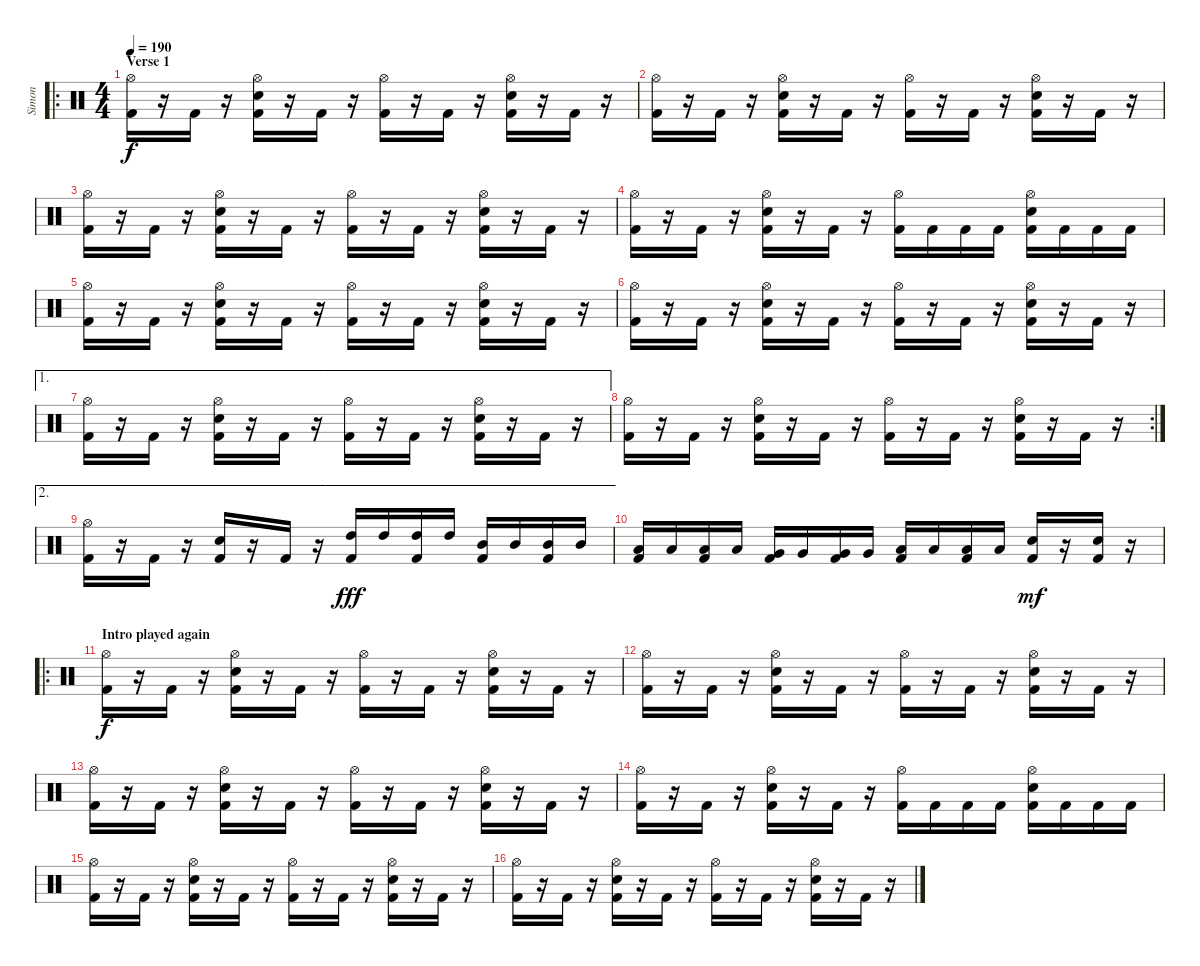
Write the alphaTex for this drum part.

\track ("Simon" "Simon") {instrument percussion}
\staff {score}
\articulation defaults
\ro
\ts (4 4)
\section ("" "Verse 1")
\tempo 190
\clef neutral
\ks c
("Hi-Hat (open)" "Kick (hit) 2").16{dy f} r.16 "Kick (hit) 2".16 r.16 ("Hi-Hat (open)" "Snare (hit) 2" "Kick (hit) 2").16 r.16 "Kick (hit) 2".16 r.16 ("Hi-Hat (open)" "Kick (hit) 2").16 r.16 "Kick (hit) 2".16 r.16 ("Hi-Hat (open)" "Snare (hit) 2" "Kick (hit) 2").16 r.16 "Kick (hit) 2".16 r.16 |
("Hi-Hat (open)" "Kick (hit) 2").16 r.16 "Kick (hit) 2".16 r.16 ("Hi-Hat (open)" "Snare (hit) 2" "Kick (hit) 2").16 r.16 "Kick (hit) 2".16 r.16 ("Hi-Hat (open)" "Kick (hit) 2").16 r.16 "Kick (hit) 2".16 r.16 ("Hi-Hat (open)" "Snare (hit) 2" "Kick (hit) 2").16 r.16 "Kick (hit) 2".16 r.16 |
("Hi-Hat (open)" "Kick (hit) 2").16 r.16 "Kick (hit) 2".16 r.16 ("Hi-Hat (open)" "Snare (hit) 2" "Kick (hit) 2").16 r.16 "Kick (hit) 2".16 r.16 ("Hi-Hat (open)" "Kick (hit) 2").16 r.16 "Kick (hit) 2".16 r.16 ("Hi-Hat (open)" "Snare (hit) 2" "Kick (hit) 2").16 r.16 "Kick (hit) 2".16 r.16 |
("Hi-Hat (open)" "Kick (hit) 2").16 r.16 "Kick (hit) 2".16 r.16 ("Hi-Hat (open)" "Snare (hit) 2" "Kick (hit) 2").16 r.16 "Kick (hit) 2".16 r.16 ("Hi-Hat (open)" "Kick (hit) 2").16 "Kick (hit) 2".16 "Kick (hit) 2".16 "Kick (hit) 2".16 ("Hi-Hat (open)" "Snare (hit) 2" "Kick (hit) 2").16 "Kick (hit) 2".16 "Kick (hit) 2".16 "Kick (hit) 2".16 |
("Hi-Hat (open)" "Kick (hit) 2").16 r.16 "Kick (hit) 2".16 r.16 ("Hi-Hat (open)" "Snare (hit) 2" "Kick (hit) 2").16 r.16 "Kick (hit) 2".16 r.16 ("Hi-Hat (open)" "Kick (hit) 2").16 r.16 "Kick (hit) 2".16 r.16 ("Hi-Hat (open)" "Snare (hit) 2" "Kick (hit) 2").16 r.16 "Kick (hit) 2".16 r.16 |
("Hi-Hat (open)" "Kick (hit) 2").16 r.16 "Kick (hit) 2".16 r.16 ("Hi-Hat (open)" "Snare (hit) 2" "Kick (hit) 2").16 r.16 "Kick (hit) 2".16 r.16 ("Hi-Hat (open)" "Kick (hit) 2").16 r.16 "Kick (hit) 2".16 r.16 ("Hi-Hat (open)" "Snare (hit) 2" "Kick (hit) 2").16 r.16 "Kick (hit) 2".16 r.16 |
\ae 1
("Hi-Hat (open)" "Kick (hit) 2").16 r.16 "Kick (hit) 2".16 r.16 ("Hi-Hat (open)" "Snare (hit) 2" "Kick (hit) 2").16 r.16 "Kick (hit) 2".16 r.16 ("Hi-Hat (open)" "Kick (hit) 2").16 r.16 "Kick (hit) 2".16 r.16 ("Hi-Hat (open)" "Snare (hit) 2" "Kick (hit) 2").16 r.16 "Kick (hit) 2".16 r.16 |
\rc 2
("Hi-Hat (open)" "Kick (hit) 2").16 r.16 "Kick (hit) 2".16 r.16 ("Hi-Hat (open)" "Snare (hit) 2" "Kick (hit) 2").16 r.16 "Kick (hit) 2".16 r.16 ("Hi-Hat (open)" "Kick (hit) 2").16 r.16 "Kick (hit) 2".16 r.16 ("Hi-Hat (open)" "Snare (hit) 2" "Kick (hit) 2").16 r.16 "Kick (hit) 2".16 r.16 |
\ae 2
("Hi-Hat (open)" "Kick (hit) 2").16 r.16 "Kick (hit) 2".16 r.16 ("Snare (hit) 2" "Kick (hit) 2").16 r.16 "Kick (hit) 2".16 r.16 ("High Tom (hit)" "Kick (hit) 2").16{dy fff} "High Tom (hit)".16 ("High Tom (hit)" "Kick (hit) 2").16 "High Tom (hit)".16 ("Mid Tom (hit)" "Kick (hit) 2").16 "Mid Tom (hit)".16 ("Mid Tom (hit)" "Kick (hit) 2").16 "Mid Tom (hit)".16 |
("Low Tom (hit)" "Kick (hit) 2").16 "Low Tom (hit)".16 ("Low Tom (hit)" "Kick (hit) 2").16 "Low Tom (hit)".16 ("Very Low Tom (hit)" "Kick (hit) 2").16 "Very Low Tom (hit)".16 ("Very Low Tom (hit)" "Kick (hit) 2").16 "Very Low Tom (hit)".16 ("Low Floor Tom (hit)" "Kick (hit) 2").16 "Low Floor Tom (hit)".16 ("Low Floor Tom (hit)" "Kick (hit) 2").16 "Low Floor Tom (hit)".16 ("Snare (hit) 2" "Kick (hit) 2").16{dy mf} r.16 ("Snare (hit) 2" "Kick (hit) 2").16 r.16 |
\ro
\section ("" "Intro played again")
("Hi-Hat (open)" "Kick (hit) 2").16{dy f} r.16 "Kick (hit) 2".16 r.16 ("Hi-Hat (open)" "Snare (hit) 2" "Kick (hit) 2").16 r.16 "Kick (hit) 2".16 r.16 ("Hi-Hat (open)" "Kick (hit) 2").16 r.16 "Kick (hit) 2".16 r.16 ("Hi-Hat (open)" "Snare (hit) 2" "Kick (hit) 2").16 r.16 "Kick (hit) 2".16 r.16 |
("Hi-Hat (open)" "Kick (hit) 2").16 r.16 "Kick (hit) 2".16 r.16 ("Hi-Hat (open)" "Snare (hit) 2" "Kick (hit) 2").16 r.16 "Kick (hit) 2".16 r.16 ("Hi-Hat (open)" "Kick (hit) 2").16 r.16 "Kick (hit) 2".16 r.16 ("Hi-Hat (open)" "Snare (hit) 2" "Kick (hit) 2").16 r.16 "Kick (hit) 2".16 r.16 |
("Hi-Hat (open)" "Kick (hit) 2").16 r.16 "Kick (hit) 2".16 r.16 ("Hi-Hat (open)" "Snare (hit) 2" "Kick (hit) 2").16 r.16 "Kick (hit) 2".16 r.16 ("Hi-Hat (open)" "Kick (hit) 2").16 r.16 "Kick (hit) 2".16 r.16 ("Hi-Hat (open)" "Snare (hit) 2" "Kick (hit) 2").16 r.16 "Kick (hit) 2".16 r.16 |
("Hi-Hat (open)" "Kick (hit) 2").16 r.16 "Kick (hit) 2".16 r.16 ("Hi-Hat (open)" "Snare (hit) 2" "Kick (hit) 2").16 r.16 "Kick (hit) 2".16 r.16 ("Hi-Hat (open)" "Kick (hit) 2").16 "Kick (hit) 2".16 "Kick (hit) 2".16 "Kick (hit) 2".16 ("Hi-Hat (open)" "Snare (hit) 2" "Kick (hit) 2").16 "Kick (hit) 2".16 "Kick (hit) 2".16 "Kick (hit) 2".16 |
("Hi-Hat (open)" "Kick (hit) 2").16 r.16 "Kick (hit) 2".16 r.16 ("Hi-Hat (open)" "Snare (hit) 2" "Kick (hit) 2").16 r.16 "Kick (hit) 2".16 r.16 ("Hi-Hat (open)" "Kick (hit) 2").16 r.16 "Kick (hit) 2".16 r.16 ("Hi-Hat (open)" "Snare (hit) 2" "Kick (hit) 2").16 r.16 "Kick (hit) 2".16 r.16 |
("Hi-Hat (open)" "Kick (hit) 2").16 r.16 "Kick (hit) 2".16 r.16 ("Hi-Hat (open)" "Snare (hit) 2" "Kick (hit) 2").16 r.16 "Kick (hit) 2".16 r.16 ("Hi-Hat (open)" "Kick (hit) 2").16 r.16 "Kick (hit) 2".16 r.16 ("Hi-Hat (open)" "Snare (hit) 2" "Kick (hit) 2").16 r.16 "Kick (hit) 2".16 r.16
